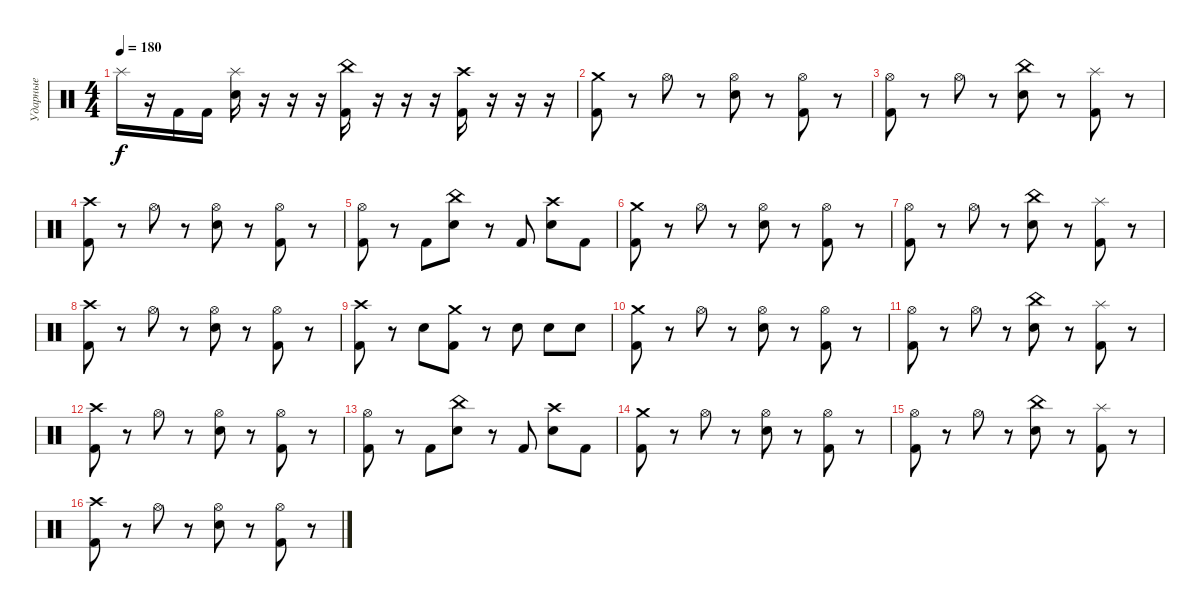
\track ("Ударные" "Ударные") {instrument percussion}
\staff {score}
\articulation defaults
\ts (4 4)
\tempo 180
\clef neutral
\ks c "Splash (hit)".16{dy f}
r.16 "Kick (hit) 2".16 "Kick (hit) 2".16 ("Electric Snare (hit)" "Splash (hit)").16 r.16 r.16 r.16 ("Kick (hit) 2" "China (hit)").16 r.16 r.16 r.16 ("Kick (hit) 2" "Crash high (hit)").16 r.16 r.16 r.16 |
("Kick (hit) 2" "Crash medium (hit)").8 r.8 "Hi-Hat (open)".8 r.8 ("Electric Snare (hit)" "Hi-Hat (open)").8 r.8 ("Kick (hit) 2" "Hi-Hat (open)").8 r.8 |
("Kick (hit) 2" "Hi-Hat (open)").8 r.8 "Hi-Hat (open)".8 r.8 ("Electric Snare (hit)" "China (hit)").8 r.8 ("Kick (hit) 2" "Splash (hit)").8 r.8 |
("Kick (hit) 2" "Crash high (hit)").8 r.8 "Hi-Hat (open)".8 r.8 ("Electric Snare (hit)" "Hi-Hat (open)").8 r.8 ("Kick (hit) 2" "Hi-Hat (open)").8 r.8 |
("Kick (hit) 2" "Hi-Hat (open)").8 r.8 "Kick (hit) 2".8 ("Electric Snare (hit)" "China (hit)").8 r.8 "Kick (hit) 2".8 ("Electric Snare (hit)" "Crash high (hit)").8 "Kick (hit) 2".8 |
("Kick (hit) 2" "Crash medium (hit)").8 r.8 "Hi-Hat (open)".8 r.8 ("Electric Snare (hit)" "Hi-Hat (open)").8 r.8 ("Kick (hit) 2" "Hi-Hat (open)").8 r.8 |
("Kick (hit) 2" "Hi-Hat (open)").8 r.8 "Hi-Hat (open)".8 r.8 ("Electric Snare (hit)" "China (hit)").8 r.8 ("Kick (hit) 2" "Splash (hit)").8 r.8 |
("Kick (hit) 2" "Crash high (hit)").8 r.8 "Hi-Hat (open)".8 r.8 ("Electric Snare (hit)" "Hi-Hat (open)").8 r.8 ("Kick (hit) 2" "Hi-Hat (open)").8 r.8 |
("Kick (hit) 2" "Crash high (hit)").8 r.8 "Electric Snare (hit)".8 ("Kick (hit) 2" "Crash medium (hit)").8 r.8 "Electric Snare (hit)".8 "Electric Snare (hit)".8 "Electric Snare (hit)".8 |
("Kick (hit) 2" "Crash medium (hit)").8 r.8 "Hi-Hat (open)".8 r.8 ("Electric Snare (hit)" "Hi-Hat (open)").8 r.8 ("Kick (hit) 2" "Hi-Hat (open)").8 r.8 |
("Kick (hit) 2" "Hi-Hat (open)").8 r.8 "Hi-Hat (open)".8 r.8 ("Electric Snare (hit)" "China (hit)").8 r.8 ("Kick (hit) 2" "Splash (hit)").8 r.8 |
("Kick (hit) 2" "Crash high (hit)").8 r.8 "Hi-Hat (open)".8 r.8 ("Electric Snare (hit)" "Hi-Hat (open)").8 r.8 ("Kick (hit) 2" "Hi-Hat (open)").8 r.8 |
("Kick (hit) 2" "Hi-Hat (open)").8 r.8 "Kick (hit) 2".8 ("Electric Snare (hit)" "China (hit)").8 r.8 "Kick (hit) 2".8 ("Electric Snare (hit)" "Crash high (hit)").8 "Kick (hit) 2".8 |
("Kick (hit) 2" "Crash medium (hit)").8 r.8 "Hi-Hat (open)".8 r.8 ("Electric Snare (hit)" "Hi-Hat (open)").8 r.8 ("Kick (hit) 2" "Hi-Hat (open)").8 r.8 |
("Kick (hit) 2" "Hi-Hat (open)").8 r.8 "Hi-Hat (open)".8 r.8 ("Electric Snare (hit)" "China (hit)").8 r.8 ("Kick (hit) 2" "Splash (hit)").8 r.8 |
("Kick (hit) 2" "Crash high (hit)").8 r.8 "Hi-Hat (open)".8 r.8 ("Electric Snare (hit)" "Hi-Hat (open)").8 r.8 ("Kick (hit) 2" "Hi-Hat (open)").8 r.8
